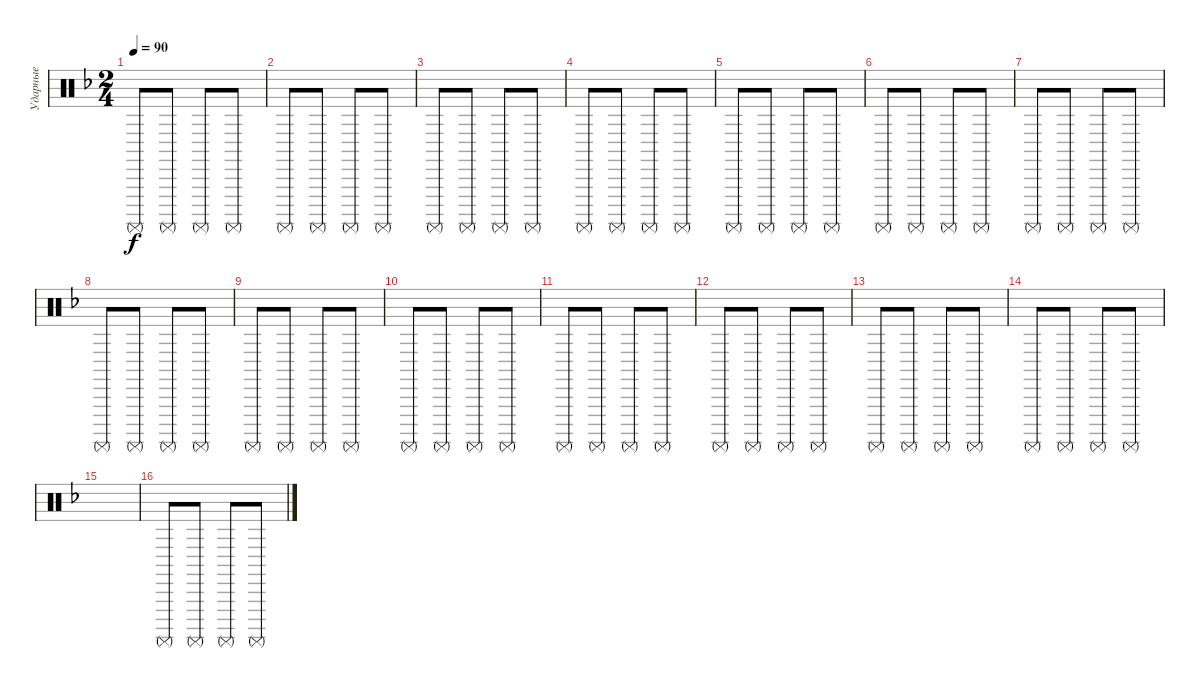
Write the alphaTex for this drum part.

\track ("Ударные" "Ударные") {instrument percussion}
\staff {score}
\articulation defaults
\ts (2 4)
\tempo 90
\clef neutral
\ks dminor "Surdo (mute)".8{dy f} "Surdo (mute)".8 "Surdo (mute)".8 "Surdo (mute)".8
|
"Surdo (mute)".8 "Surdo (mute)".8 "Surdo (mute)".8 "Surdo (mute)".8 |
"Surdo (mute)".8 "Surdo (mute)".8 "Surdo (mute)".8 "Surdo (mute)".8 |
"Surdo (mute)".8 "Surdo (mute)".8 "Surdo (mute)".8 "Surdo (mute)".8 |
"Surdo (mute)".8 "Surdo (mute)".8 "Surdo (mute)".8 "Surdo (mute)".8 |
"Surdo (mute)".8 "Surdo (mute)".8 "Surdo (mute)".8 "Surdo (mute)".8 |
"Surdo (mute)".8 "Surdo (mute)".8 "Surdo (mute)".8 "Surdo (mute)".8 |
"Surdo (mute)".8 "Surdo (mute)".8 "Surdo (mute)".8 "Surdo (mute)".8 |
"Surdo (mute)".8 "Surdo (mute)".8 "Surdo (mute)".8 "Surdo (mute)".8 |
"Surdo (mute)".8 "Surdo (mute)".8 "Surdo (mute)".8 "Surdo (mute)".8 |
"Surdo (mute)".8 "Surdo (mute)".8 "Surdo (mute)".8 "Surdo (mute)".8 |
"Surdo (mute)".8 "Surdo (mute)".8 "Surdo (mute)".8 "Surdo (mute)".8 |
"Surdo (mute)".8 "Surdo (mute)".8 "Surdo (mute)".8 "Surdo (mute)".8 |
"Surdo (mute)".8 "Surdo (mute)".8 "Surdo (mute)".8 "Surdo (mute)".8 |
|
"Surdo (mute)".8 "Surdo (mute)".8 "Surdo (mute)".8 "Surdo (mute)".8
